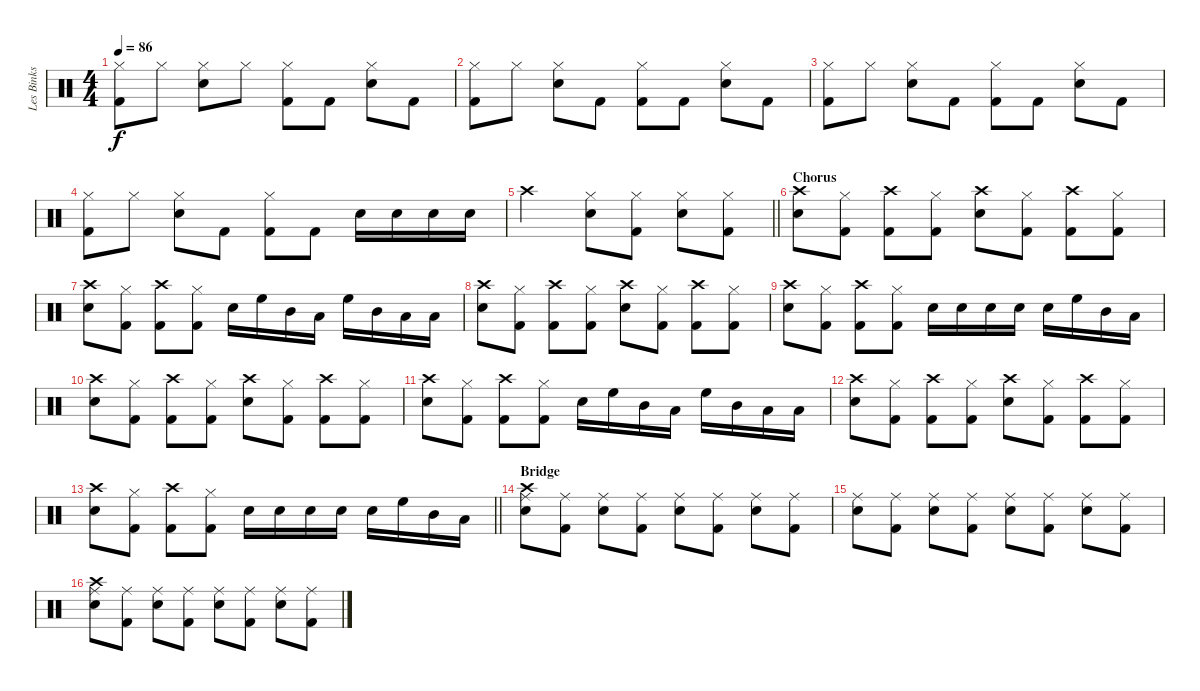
\track ("Les Binks" "Les Binks") {instrument percussion}
\staff {score}
\articulation defaults
\ts (4 4)
\tempo 86
\clef neutral
\ks c
("Hi-Hat (closed)" "Kick (hit) 2").8{dy f} "Hi-Hat (closed)".8 ("Snare (hit) 2" "Hi-Hat (closed)").8 "Hi-Hat (closed)".8 ("Hi-Hat (closed)" "Kick (hit) 2").8 "Kick (hit) 2".8 ("Hi-Hat (closed)" "Snare (hit) 2").8 "Kick (hit) 2".8 |
("Hi-Hat (closed)" "Kick (hit) 2").8 "Hi-Hat (closed)".8 ("Hi-Hat (closed)" "Snare (hit) 2").8 "Kick (hit) 2".8 ("Hi-Hat (closed)" "Kick (hit) 2").8 "Kick (hit) 2".8 ("Hi-Hat (closed)" "Snare (hit) 2").8 "Kick (hit) 2".8 |
("Hi-Hat (closed)" "Kick (hit) 2").8 "Hi-Hat (closed)".8 ("Hi-Hat (closed)" "Snare (hit) 2").8 "Kick (hit) 2".8 ("Hi-Hat (closed)" "Kick (hit) 2").8 "Kick (hit) 2".8 ("Hi-Hat (closed)" "Snare (hit) 2").8 "Kick (hit) 2".8 |
("Hi-Hat (closed)" "Kick (hit) 2").8 "Hi-Hat (closed)".8 ("Hi-Hat (closed)" "Snare (hit) 2").8 "Kick (hit) 2".8 ("Hi-Hat (closed)" "Kick (hit) 2").8 "Kick (hit) 2".8 "Snare (hit) 2".16 "Snare (hit) 2".16 "Snare (hit) 2".16 "Snare (hit) 2".16 |
\barLineRight lightlight "Crash high (hit)".2
("Hi-Hat (closed)" "Snare (hit) 2").8 ("Hi-Hat (closed)" "Kick (hit) 2").8 ("Hi-Hat (closed)" "Snare (hit) 2").8 ("Hi-Hat (closed)" "Kick (hit) 2").8 |
\section ("" "Chorus")
("Snare (hit) 2" "Crash high (hit)").8 ("Hi-Hat (closed)" "Kick (hit) 2").8 ("Kick (hit) 2" "Crash high (hit)").8 ("Hi-Hat (closed)" "Kick (hit) 2").8 ("Snare (hit) 2" "Crash high (hit)").8 ("Hi-Hat (closed)" "Kick (hit) 2").8 ("Crash high (hit)" "Kick (hit) 2").8 ("Hi-Hat (closed)" "Kick (hit) 2").8 |
("Snare (hit) 2" "Crash high (hit)").8 ("Hi-Hat (closed)" "Kick (hit) 2").8 ("Kick (hit) 2" "Crash high (hit)").8 ("Hi-Hat (closed)" "Kick (hit) 2").8 "Snare (hit) 2".16 "High Floor Tom (hit)".16 "Mid Tom (hit)".16 "Low Tom (hit)".16 "High Floor Tom (hit)".16 "Mid Tom (hit)".16 "Low Tom (hit)".16 "Low Floor Tom (hit)".16 |
("Snare (hit) 2" "Crash high (hit)").8 ("Hi-Hat (closed)" "Kick (hit) 2").8 ("Kick (hit) 2" "Crash high (hit)").8 ("Hi-Hat (closed)" "Kick (hit) 2").8 ("Snare (hit) 2" "Crash high (hit)").8 ("Hi-Hat (closed)" "Kick (hit) 2").8 ("Crash high (hit)" "Kick (hit) 2").8 ("Hi-Hat (closed)" "Kick (hit) 2").8 |
("Snare (hit) 2" "Crash high (hit)").8 ("Hi-Hat (closed)" "Kick (hit) 2").8 ("Kick (hit) 2" "Crash high (hit)").8 ("Hi-Hat (closed)" "Kick (hit) 2").8 "Snare (hit) 2".16 "Snare (hit) 2".16 "Snare (hit) 2".16 "Snare (hit) 2".16 "Snare (hit) 2".16 "High Floor Tom (hit)".16 "Mid Tom (hit)".16 "Low Tom (hit)".16 |
("Snare (hit) 2" "Crash high (hit)").8 ("Hi-Hat (closed)" "Kick (hit) 2").8 ("Kick (hit) 2" "Crash high (hit)").8 ("Hi-Hat (closed)" "Kick (hit) 2").8 ("Snare (hit) 2" "Crash high (hit)").8 ("Hi-Hat (closed)" "Kick (hit) 2").8 ("Crash high (hit)" "Kick (hit) 2").8 ("Hi-Hat (closed)" "Kick (hit) 2").8 |
("Snare (hit) 2" "Crash high (hit)").8 ("Hi-Hat (closed)" "Kick (hit) 2").8 ("Kick (hit) 2" "Crash high (hit)").8 ("Hi-Hat (closed)" "Kick (hit) 2").8 "Snare (hit) 2".16 "High Floor Tom (hit)".16 "Mid Tom (hit)".16 "Low Tom (hit)".16 "High Floor Tom (hit)".16 "Mid Tom (hit)".16 "Low Tom (hit)".16 "Low Floor Tom (hit)".16 |
("Snare (hit) 2" "Crash high (hit)").8 ("Hi-Hat (closed)" "Kick (hit) 2").8 ("Kick (hit) 2" "Crash high (hit)").8 ("Hi-Hat (closed)" "Kick (hit) 2").8 ("Snare (hit) 2" "Crash high (hit)").8 ("Hi-Hat (closed)" "Kick (hit) 2").8 ("Crash high (hit)" "Kick (hit) 2").8 ("Hi-Hat (closed)" "Kick (hit) 2").8 |
\barLineRight lightlight
("Snare (hit) 2" "Crash high (hit)").8 ("Hi-Hat (closed)" "Kick (hit) 2").8 ("Kick (hit) 2" "Crash high (hit)").8 ("Hi-Hat (closed)" "Kick (hit) 2").8 "Snare (hit) 2".16 "Snare (hit) 2".16 "Snare (hit) 2".16 "Snare (hit) 2".16 "Snare (hit) 2".16 "High Floor Tom (hit)".16 "Mid Tom (hit)".16 "Low Tom (hit)".16 |
\section ("" "Bridge")
("Crash high (hit)" "Ride (middle)" "Snare (hit) 2").8 ("Ride (middle)" "Kick (hit) 2").8 ("Ride (middle)" "Snare (hit) 2").8 ("Ride (middle)" "Kick (hit) 2").8 ("Ride (middle)" "Snare (hit) 2").8 ("Ride (middle)" "Kick (hit) 2").8 ("Ride (middle)" "Snare (hit) 2").8 ("Ride (middle)" "Kick (hit) 2").8 |
("Ride (middle)" "Snare (hit) 2").8 ("Ride (middle)" "Kick (hit) 2").8 ("Ride (middle)" "Snare (hit) 2").8 ("Ride (middle)" "Kick (hit) 2").8 ("Ride (middle)" "Snare (hit) 2").8 ("Ride (middle)" "Kick (hit) 2").8 ("Ride (middle)" "Snare (hit) 2").8 ("Ride (middle)" "Kick (hit) 2").8 |
("Crash high (hit)" "Ride (middle)" "Snare (hit) 2").8 ("Ride (middle)" "Kick (hit) 2").8 ("Ride (middle)" "Snare (hit) 2").8 ("Ride (middle)" "Kick (hit) 2").8 ("Ride (middle)" "Snare (hit) 2").8 ("Ride (middle)" "Kick (hit) 2").8 ("Ride (middle)" "Snare (hit) 2").8 ("Ride (middle)" "Kick (hit) 2").8
